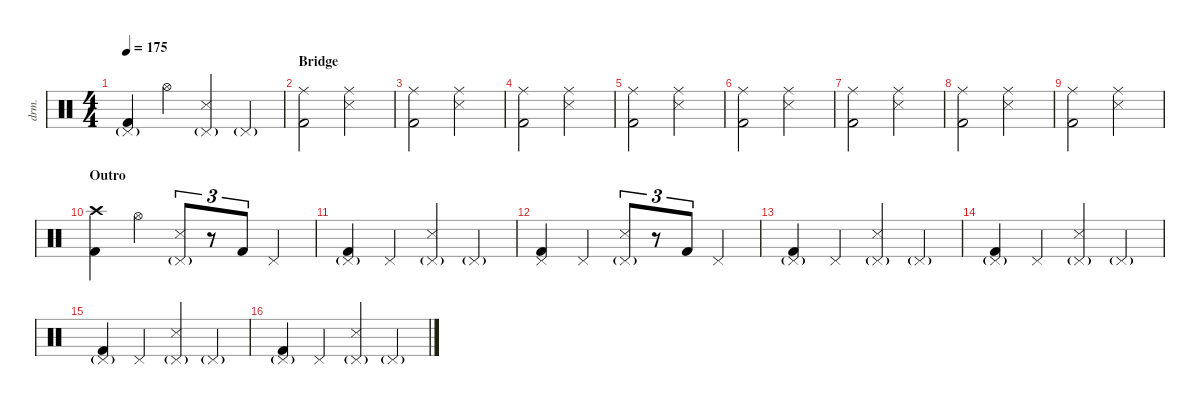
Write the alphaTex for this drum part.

\defaultSystemsLayout 4
\hideDynamics
\bracketExtendMode nobrackets
\otherSystemsTrackNameOrientation horizontal
\track ("Percussion" "drm.") {instrument percussion}
\staff {score}
\articulation defaults
\ts (4 4)
\tempo 175
\clef neutral
\ks c
("Pedal Hi-Hat (hit)"{g} "Kick (hit) 2").4{dy f} "Hi-Hat (open)".4 ("Pedal Hi-Hat (hit)"{g} "Snare (side stick) 3").4 "Pedal Hi-Hat (hit)"{g}.4 |
\section ("" "Bridge")
("Ride (middle)" "Kick (hit) 2").2 ("Ride (middle)" "Snare (side stick) 3").2 |
("Ride (middle)" "Kick (hit) 2").2 ("Ride (middle)" "Snare (side stick) 3").2 |
("Ride (middle)" "Kick (hit) 2").2 ("Ride (middle)" "Snare (side stick) 3").2 |
("Ride (middle)" "Kick (hit) 2").2 ("Ride (middle)" "Snare (side stick) 3").2 |
("Ride (middle)" "Kick (hit) 2").2 ("Ride (middle)" "Snare (side stick) 3").2 |
("Ride (middle)" "Kick (hit) 2").2 ("Ride (middle)" "Snare (side stick) 3").2 |
("Ride (middle)" "Kick (hit) 2").2 ("Ride (middle)" "Snare (side stick) 3").2 |
("Ride (middle)" "Kick (hit) 2").2 ("Ride (middle)" "Snare (side stick) 3").2 |
\section ("" "Outro")
("Crash high (hit)" "Kick (hit) 2").4{dy fff} "Hi-Hat (open)".4{dy f} ("Pedal Hi-Hat (hit)"{g} "Snare (side stick) 3").8{tu (3 2) dy fff} r.8{tu (3 2)} "Kick (hit) 2".8{tu (3 2) dy f} "Pedal Hi-Hat (hit)".4 |
("Pedal Hi-Hat (hit)"{g} "Kick (hit) 2").4 "Pedal Hi-Hat (hit)".4 ("Pedal Hi-Hat (hit)"{g} "Snare (side stick) 3").4 "Pedal Hi-Hat (hit)"{g}.4 |
("Pedal Hi-Hat (hit)" "Kick (hit) 2").4 "Pedal Hi-Hat (hit)".4 ("Pedal Hi-Hat (hit)"{g} "Snare (side stick) 3").8{tu (3 2) dy fff} r.8{tu (3 2)} "Kick (hit) 2".8{tu (3 2) dy f} "Pedal Hi-Hat (hit)".4 |
("Pedal Hi-Hat (hit)"{g} "Kick (hit) 2").4 "Pedal Hi-Hat (hit)".4 ("Pedal Hi-Hat (hit)"{g} "Snare (side stick) 3").4 "Pedal Hi-Hat (hit)"{g}.4 |
("Pedal Hi-Hat (hit)"{g} "Kick (hit) 2").4 "Pedal Hi-Hat (hit)".4 ("Pedal Hi-Hat (hit)"{g} "Snare (side stick) 3").4 "Pedal Hi-Hat (hit)"{g}.4 |
("Pedal Hi-Hat (hit)"{g} "Kick (hit) 2").4 "Pedal Hi-Hat (hit)".4 ("Pedal Hi-Hat (hit)"{g} "Snare (side stick) 3").4 "Pedal Hi-Hat (hit)"{g}.4 |
("Pedal Hi-Hat (hit)"{g} "Kick (hit) 2").4 "Pedal Hi-Hat (hit)".4 ("Pedal Hi-Hat (hit)"{g} "Snare (side stick) 3").4 "Pedal Hi-Hat (hit)"{g}.4
